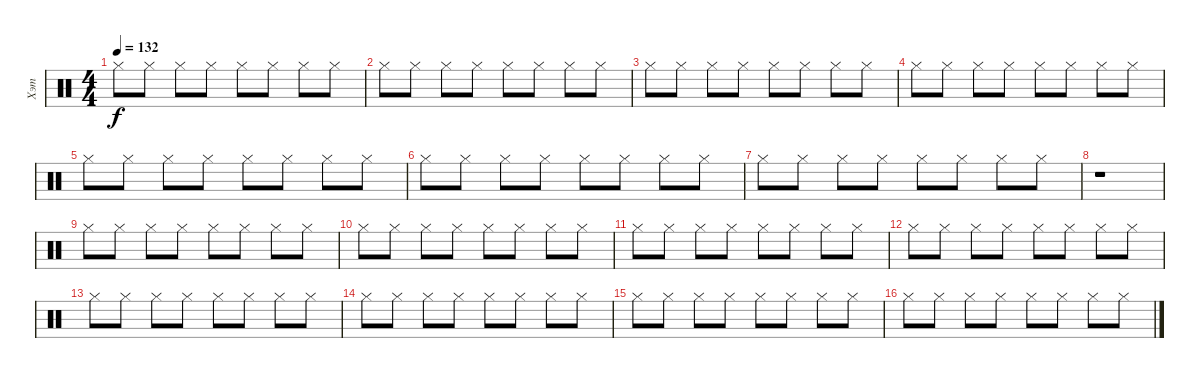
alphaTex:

\track ("Хэт" "Хэт") {instrument percussion}
\staff {score}
\articulation defaults
\ts (4 4)
\tempo 132
\clef neutral
\ks c "Hi-Hat (closed)".8{dy f} "Hi-Hat (closed)".8 "Hi-Hat (closed)".8 "Hi-Hat (closed)".8 "Hi-Hat (closed)".8 "Hi-Hat (closed)".8 "Hi-Hat (closed)".8 "Hi-Hat (closed)".8
|
"Hi-Hat (closed)".8 "Hi-Hat (closed)".8 "Hi-Hat (closed)".8 "Hi-Hat (closed)".8 "Hi-Hat (closed)".8 "Hi-Hat (closed)".8 "Hi-Hat (closed)".8 "Hi-Hat (closed)".8 |
"Hi-Hat (closed)".8 "Hi-Hat (closed)".8 "Hi-Hat (closed)".8 "Hi-Hat (closed)".8 "Hi-Hat (closed)".8 "Hi-Hat (closed)".8 "Hi-Hat (closed)".8 "Hi-Hat (closed)".8 |
"Hi-Hat (closed)".8 "Hi-Hat (closed)".8 "Hi-Hat (closed)".8 "Hi-Hat (closed)".8 "Hi-Hat (closed)".8 "Hi-Hat (closed)".8 "Hi-Hat (closed)".8 "Hi-Hat (closed)".8 |
"Hi-Hat (closed)".8 "Hi-Hat (closed)".8 "Hi-Hat (closed)".8 "Hi-Hat (closed)".8 "Hi-Hat (closed)".8 "Hi-Hat (closed)".8 "Hi-Hat (closed)".8 "Hi-Hat (closed)".8 |
"Hi-Hat (closed)".8 "Hi-Hat (closed)".8 "Hi-Hat (closed)".8 "Hi-Hat (closed)".8 "Hi-Hat (closed)".8 "Hi-Hat (closed)".8 "Hi-Hat (closed)".8 "Hi-Hat (closed)".8 |
"Hi-Hat (closed)".8 "Hi-Hat (closed)".8 "Hi-Hat (closed)".8 "Hi-Hat (closed)".8 "Hi-Hat (closed)".8 "Hi-Hat (closed)".8 "Hi-Hat (closed)".8 "Hi-Hat (closed)".8 |
r.1 |
"Hi-Hat (closed)".8 "Hi-Hat (closed)".8 "Hi-Hat (closed)".8 "Hi-Hat (closed)".8 "Hi-Hat (closed)".8 "Hi-Hat (closed)".8 "Hi-Hat (closed)".8 "Hi-Hat (closed)".8 |
"Hi-Hat (closed)".8 "Hi-Hat (closed)".8 "Hi-Hat (closed)".8 "Hi-Hat (closed)".8 "Hi-Hat (closed)".8 "Hi-Hat (closed)".8 "Hi-Hat (closed)".8 "Hi-Hat (closed)".8 |
"Hi-Hat (closed)".8 "Hi-Hat (closed)".8 "Hi-Hat (closed)".8 "Hi-Hat (closed)".8 "Hi-Hat (closed)".8 "Hi-Hat (closed)".8 "Hi-Hat (closed)".8 "Hi-Hat (closed)".8 |
"Hi-Hat (closed)".8 "Hi-Hat (closed)".8 "Hi-Hat (closed)".8 "Hi-Hat (closed)".8 "Hi-Hat (closed)".8 "Hi-Hat (closed)".8 "Hi-Hat (closed)".8 "Hi-Hat (closed)".8 |
"Hi-Hat (closed)".8 "Hi-Hat (closed)".8 "Hi-Hat (closed)".8 "Hi-Hat (closed)".8 "Hi-Hat (closed)".8 "Hi-Hat (closed)".8 "Hi-Hat (closed)".8 "Hi-Hat (closed)".8 |
"Hi-Hat (closed)".8 "Hi-Hat (closed)".8 "Hi-Hat (closed)".8 "Hi-Hat (closed)".8 "Hi-Hat (closed)".8 "Hi-Hat (closed)".8 "Hi-Hat (closed)".8 "Hi-Hat (closed)".8 |
"Hi-Hat (closed)".8 "Hi-Hat (closed)".8 "Hi-Hat (closed)".8 "Hi-Hat (closed)".8 "Hi-Hat (closed)".8 "Hi-Hat (closed)".8 "Hi-Hat (closed)".8 "Hi-Hat (closed)".8 |
"Hi-Hat (closed)".8 "Hi-Hat (closed)".8 "Hi-Hat (closed)".8 "Hi-Hat (closed)".8 "Hi-Hat (closed)".8 "Hi-Hat (closed)".8 "Hi-Hat (closed)".8 "Hi-Hat (closed)".8
